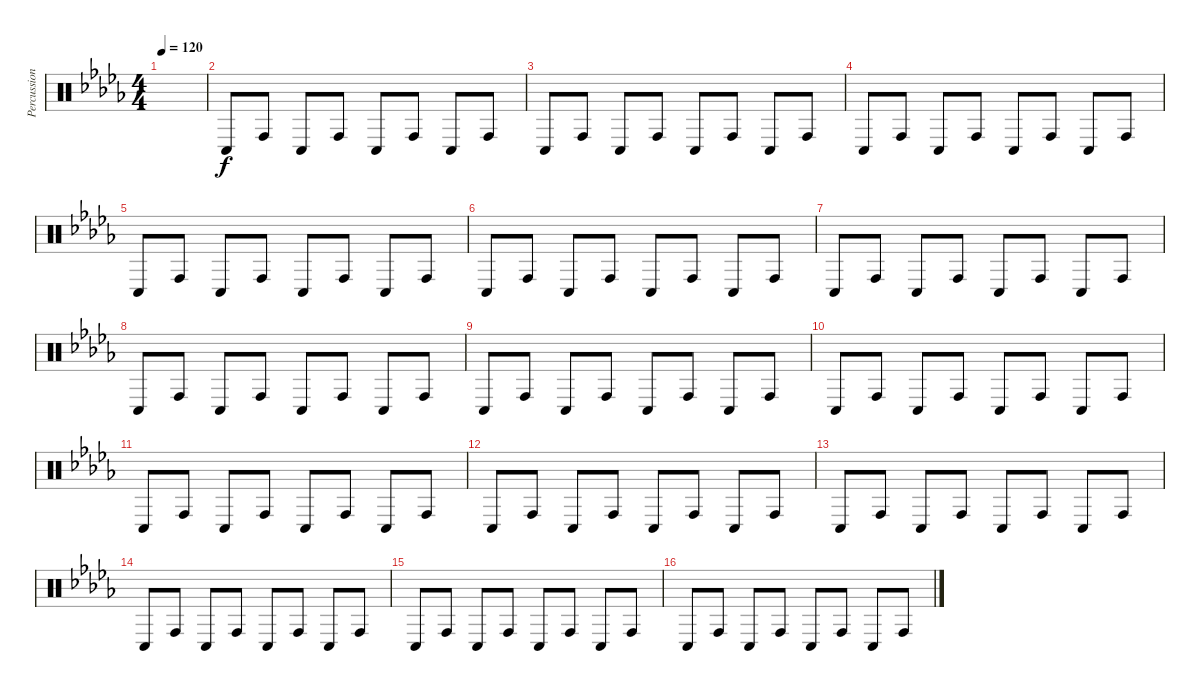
\track ("Percussion" "Percussion") {instrument percussion}
\staff {score}
\articulation defaults
\ts (4 4)
\tempo 120
\clef neutral
\ks db
|
"Conga low (hit)".8 "Conga high (hit)".8 "Conga low (hit)".8 "Conga high (hit)".8 "Conga low (hit)".8 "Conga high (hit)".8 "Conga low (hit)".8 "Conga high (hit)".8 |
"Conga low (hit)".8 "Conga high (hit)".8 "Conga low (hit)".8 "Conga high (hit)".8 "Conga low (hit)".8 "Conga high (hit)".8 "Conga low (hit)".8 "Conga high (hit)".8 |
"Conga low (hit)".8 "Conga high (hit)".8 "Conga low (hit)".8 "Conga high (hit)".8 "Conga low (hit)".8 "Conga high (hit)".8 "Conga low (hit)".8 "Conga high (hit)".8 |
"Conga low (hit)".8 "Conga high (hit)".8 "Conga low (hit)".8 "Conga high (hit)".8 "Conga low (hit)".8 "Conga high (hit)".8 "Conga low (hit)".8 "Conga high (hit)".8 |
"Conga low (hit)".8 "Conga high (hit)".8 "Conga low (hit)".8 "Conga high (hit)".8 "Conga low (hit)".8 "Conga high (hit)".8 "Conga low (hit)".8 "Conga high (hit)".8 |
"Conga low (hit)".8 "Conga high (hit)".8 "Conga low (hit)".8 "Conga high (hit)".8 "Conga low (hit)".8 "Conga high (hit)".8 "Conga low (hit)".8 "Conga high (hit)".8 |
"Conga low (hit)".8 "Conga high (hit)".8 "Conga low (hit)".8 "Conga high (hit)".8 "Conga low (hit)".8 "Conga high (hit)".8 "Conga low (hit)".8 "Conga high (hit)".8 |
"Conga low (hit)".8 "Conga high (hit)".8 "Conga low (hit)".8 "Conga high (hit)".8 "Conga low (hit)".8 "Conga high (hit)".8 "Conga low (hit)".8 "Conga high (hit)".8 |
"Conga low (hit)".8 "Conga high (hit)".8 "Conga low (hit)".8 "Conga high (hit)".8 "Conga low (hit)".8 "Conga high (hit)".8 "Conga low (hit)".8 "Conga high (hit)".8 |
"Conga low (hit)".8 "Conga high (hit)".8 "Conga low (hit)".8 "Conga high (hit)".8 "Conga low (hit)".8 "Conga high (hit)".8 "Conga low (hit)".8 "Conga high (hit)".8 |
"Conga low (hit)".8 "Conga high (hit)".8 "Conga low (hit)".8 "Conga high (hit)".8 "Conga low (hit)".8 "Conga high (hit)".8 "Conga low (hit)".8 "Conga high (hit)".8 |
"Conga low (hit)".8 "Conga high (hit)".8 "Conga low (hit)".8 "Conga high (hit)".8 "Conga low (hit)".8 "Conga high (hit)".8 "Conga low (hit)".8 "Conga high (hit)".8 |
"Conga low (hit)".8 "Conga high (hit)".8 "Conga low (hit)".8 "Conga high (hit)".8 "Conga low (hit)".8 "Conga high (hit)".8 "Conga low (hit)".8 "Conga high (hit)".8 |
"Conga low (hit)".8 "Conga high (hit)".8 "Conga low (hit)".8 "Conga high (hit)".8 "Conga low (hit)".8 "Conga high (hit)".8 "Conga low (hit)".8 "Conga high (hit)".8 |
"Conga low (hit)".8 "Conga high (hit)".8 "Conga low (hit)".8 "Conga high (hit)".8 "Conga low (hit)".8 "Conga high (hit)".8 "Conga low (hit)".8 "Conga high (hit)".8
